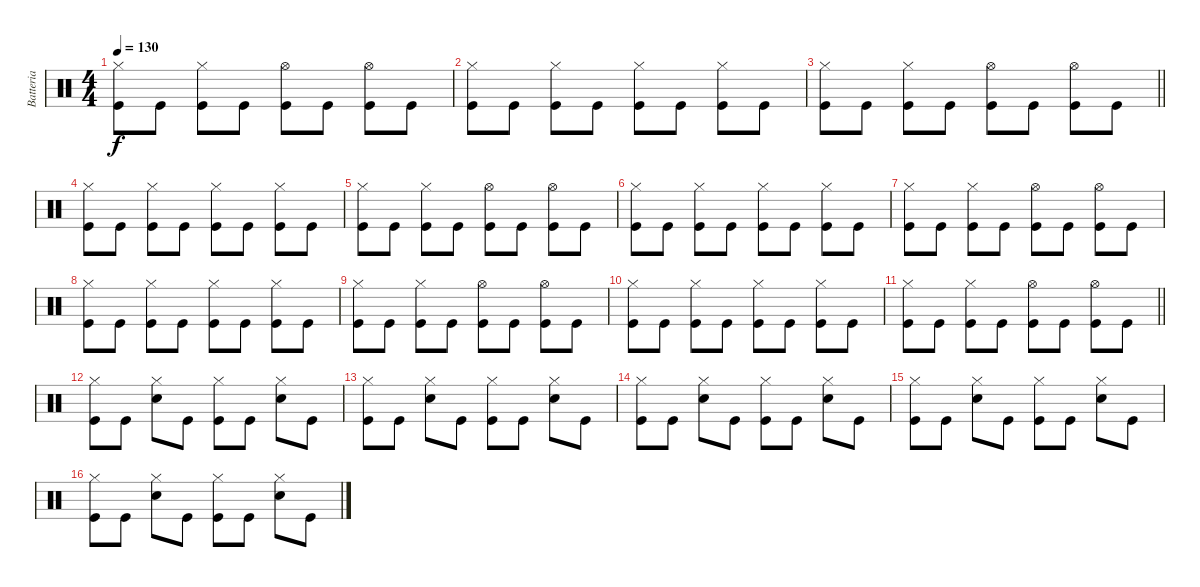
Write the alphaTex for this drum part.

\track ("Batteria" "Batteria") {instrument percussion}
\staff {score}
\articulation defaults
\ts (4 4)
\tempo 130
\clef neutral
\ks c
("Hi-Hat (closed)" "Kick (hit)").8{dy f} "Kick (hit)".8 ("Kick (hit)" "Hi-Hat (closed)").8 "Kick (hit)".8 ("Kick (hit)" "Hi-Hat (open)").8 "Kick (hit)".8 ("Kick (hit)" "Hi-Hat (open)").8 "Kick (hit)".8 |
("Hi-Hat (closed)" "Kick (hit)").8 "Kick (hit)".8 ("Kick (hit)" "Hi-Hat (closed)").8 "Kick (hit)".8 ("Kick (hit)" "Hi-Hat (closed)").8 "Kick (hit)".8 ("Kick (hit)" "Hi-Hat (closed)").8 "Kick (hit)".8 |
\barLineRight lightlight
("Hi-Hat (closed)" "Kick (hit)").8 "Kick (hit)".8 ("Kick (hit)" "Hi-Hat (closed)").8 "Kick (hit)".8 ("Kick (hit)" "Hi-Hat (open)").8 "Kick (hit)".8 ("Kick (hit)" "Hi-Hat (open)").8 "Kick (hit)".8 |
("Hi-Hat (closed)" "Kick (hit)").8 "Kick (hit)".8 ("Kick (hit)" "Hi-Hat (closed)").8 "Kick (hit)".8 ("Kick (hit)" "Hi-Hat (closed)").8 "Kick (hit)".8 ("Kick (hit)" "Hi-Hat (closed)").8 "Kick (hit)".8 |
("Hi-Hat (closed)" "Kick (hit)").8 "Kick (hit)".8 ("Kick (hit)" "Hi-Hat (closed)").8 "Kick (hit)".8 ("Kick (hit)" "Hi-Hat (open)").8 "Kick (hit)".8 ("Kick (hit)" "Hi-Hat (open)").8 "Kick (hit)".8 |
("Hi-Hat (closed)" "Kick (hit)").8 "Kick (hit)".8 ("Kick (hit)" "Hi-Hat (closed)").8 "Kick (hit)".8 ("Kick (hit)" "Hi-Hat (closed)").8 "Kick (hit)".8 ("Kick (hit)" "Hi-Hat (closed)").8 "Kick (hit)".8 |
("Hi-Hat (closed)" "Kick (hit)").8 "Kick (hit)".8 ("Kick (hit)" "Hi-Hat (closed)").8 "Kick (hit)".8 ("Kick (hit)" "Hi-Hat (open)").8 "Kick (hit)".8 ("Kick (hit)" "Hi-Hat (open)").8 "Kick (hit)".8 |
("Hi-Hat (closed)" "Kick (hit)").8 "Kick (hit)".8 ("Kick (hit)" "Hi-Hat (closed)").8 "Kick (hit)".8 ("Kick (hit)" "Hi-Hat (closed)").8 "Kick (hit)".8 ("Kick (hit)" "Hi-Hat (closed)").8 "Kick (hit)".8 |
("Hi-Hat (closed)" "Kick (hit)").8 "Kick (hit)".8 ("Kick (hit)" "Hi-Hat (closed)").8 "Kick (hit)".8 ("Kick (hit)" "Hi-Hat (open)").8 "Kick (hit)".8 ("Kick (hit)" "Hi-Hat (open)").8 "Kick (hit)".8 |
("Hi-Hat (closed)" "Kick (hit)").8 "Kick (hit)".8 ("Kick (hit)" "Hi-Hat (closed)").8 "Kick (hit)".8 ("Kick (hit)" "Hi-Hat (closed)").8 "Kick (hit)".8 ("Kick (hit)" "Hi-Hat (closed)").8 "Kick (hit)".8 |
\barLineRight lightlight
("Hi-Hat (closed)" "Kick (hit)").8 "Kick (hit)".8 ("Kick (hit)" "Hi-Hat (closed)").8 "Kick (hit)".8 ("Kick (hit)" "Hi-Hat (open)").8 "Kick (hit)".8 ("Kick (hit)" "Hi-Hat (open)").8 "Kick (hit)".8 |
("Kick (hit)" "Hi-Hat (closed)").8 "Kick (hit)".8 ("Snare (hit) 2" "Hi-Hat (closed)").8 "Kick (hit)".8 ("Kick (hit)" "Hi-Hat (closed)").8 "Kick (hit)".8 ("Snare (hit) 2" "Hi-Hat (closed)").8 "Kick (hit)".8 |
("Kick (hit)" "Hi-Hat (closed)").8 "Kick (hit)".8 ("Snare (hit) 2" "Hi-Hat (closed)").8 "Kick (hit)".8 ("Kick (hit)" "Hi-Hat (closed)").8 "Kick (hit)".8 ("Snare (hit) 2" "Hi-Hat (closed)").8 "Kick (hit)".8 |
("Kick (hit)" "Hi-Hat (closed)").8 "Kick (hit)".8 ("Snare (hit) 2" "Hi-Hat (closed)").8 "Kick (hit)".8 ("Kick (hit)" "Hi-Hat (closed)").8 "Kick (hit)".8 ("Snare (hit) 2" "Hi-Hat (closed)").8 "Kick (hit)".8 |
("Kick (hit)" "Hi-Hat (closed)").8 "Kick (hit)".8 ("Snare (hit) 2" "Hi-Hat (closed)").8 "Kick (hit)".8 ("Kick (hit)" "Hi-Hat (closed)").8 "Kick (hit)".8 ("Snare (hit) 2" "Hi-Hat (closed)").8 "Kick (hit)".8 |
("Kick (hit)" "Hi-Hat (closed)").8 "Kick (hit)".8 ("Snare (hit) 2" "Hi-Hat (closed)").8 "Kick (hit)".8 ("Kick (hit)" "Hi-Hat (closed)").8 "Kick (hit)".8 ("Snare (hit) 2" "Hi-Hat (closed)").8 "Kick (hit)".8
